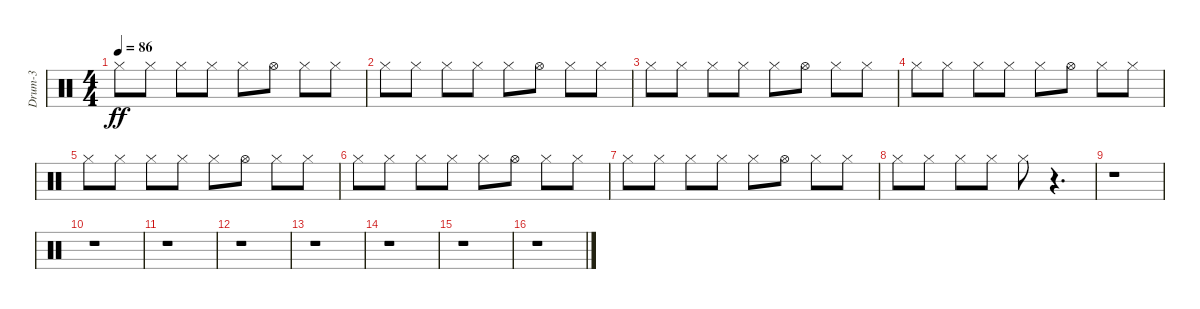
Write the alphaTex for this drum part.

\track ("Drum-3" "Drum-3") {instrument percussion}
\staff {score}
\articulation defaults
\ts (4 4)
\tempo 86
\clef neutral
\ks c "Hi-Hat (closed)".8{dy ff} "Hi-Hat (closed)".8 "Hi-Hat (closed)".8 "Hi-Hat (closed)".8 "Hi-Hat (closed)".8 "Hi-Hat (open)".8 "Hi-Hat (closed)".8 "Hi-Hat (closed)".8
|
"Hi-Hat (closed)".8 "Hi-Hat (closed)".8 "Hi-Hat (closed)".8 "Hi-Hat (closed)".8 "Hi-Hat (closed)".8 "Hi-Hat (open)".8 "Hi-Hat (closed)".8 "Hi-Hat (closed)".8 |
"Hi-Hat (closed)".8 "Hi-Hat (closed)".8 "Hi-Hat (closed)".8 "Hi-Hat (closed)".8 "Hi-Hat (closed)".8 "Hi-Hat (open)".8 "Hi-Hat (closed)".8 "Hi-Hat (closed)".8 |
"Hi-Hat (closed)".8 "Hi-Hat (closed)".8 "Hi-Hat (closed)".8 "Hi-Hat (closed)".8 "Hi-Hat (closed)".8 "Hi-Hat (open)".8 "Hi-Hat (closed)".8 "Hi-Hat (closed)".8 |
"Hi-Hat (closed)".8 "Hi-Hat (closed)".8 "Hi-Hat (closed)".8 "Hi-Hat (closed)".8 "Hi-Hat (closed)".8 "Hi-Hat (open)".8 "Hi-Hat (closed)".8 "Hi-Hat (closed)".8 |
"Hi-Hat (closed)".8 "Hi-Hat (closed)".8 "Hi-Hat (closed)".8 "Hi-Hat (closed)".8 "Hi-Hat (closed)".8 "Hi-Hat (open)".8 "Hi-Hat (closed)".8 "Hi-Hat (closed)".8 |
"Hi-Hat (closed)".8 "Hi-Hat (closed)".8 "Hi-Hat (closed)".8 "Hi-Hat (closed)".8 "Hi-Hat (closed)".8 "Hi-Hat (open)".8 "Hi-Hat (closed)".8 "Hi-Hat (closed)".8 |
"Hi-Hat (closed)".8 "Hi-Hat (closed)".8 "Hi-Hat (closed)".8 "Hi-Hat (closed)".8 "Hi-Hat (closed)".8 r.4{d} |
r.1 |
r.1 |
r.1 |
r.1 |
r.1 |
r.1 |
r.1 |
r.1
